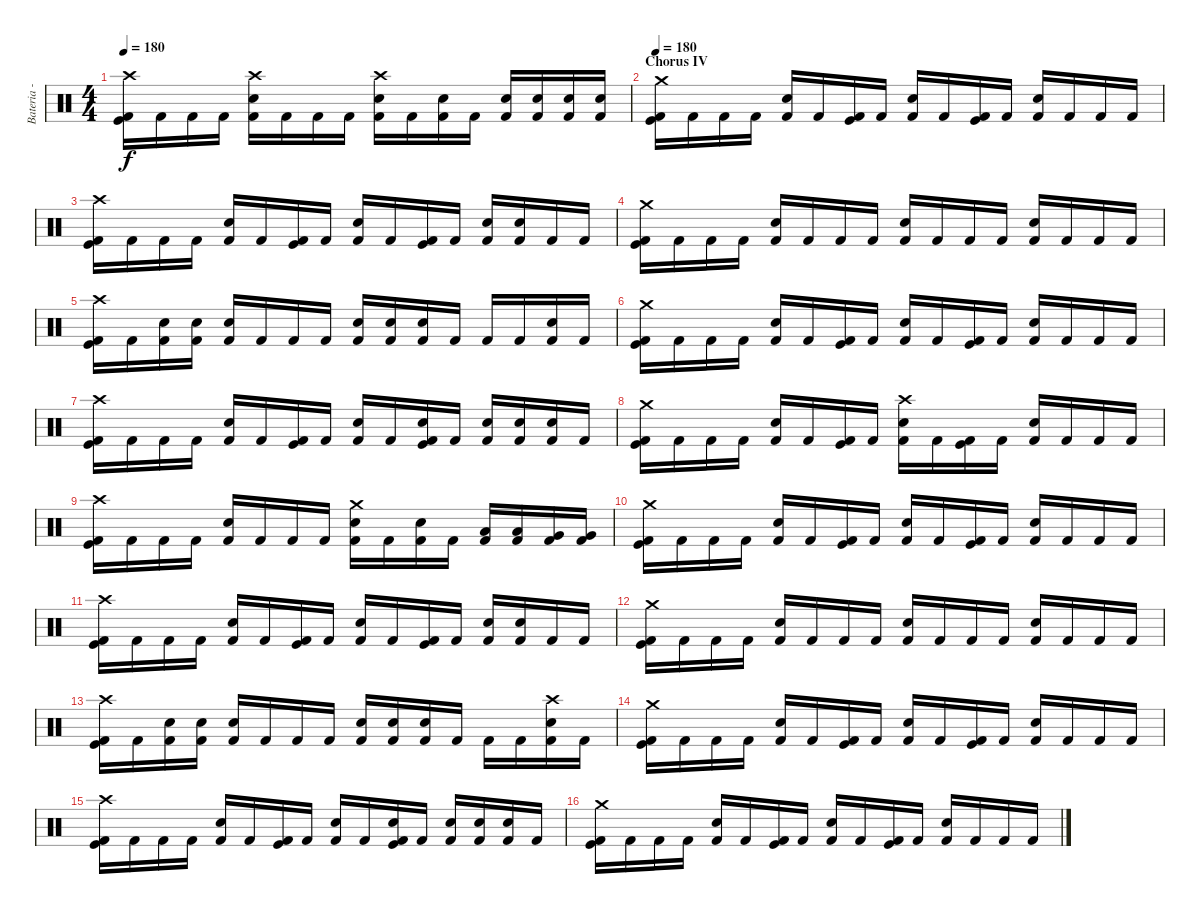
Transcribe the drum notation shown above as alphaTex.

\track ("Bateria - Drums" "Bateria - ") {instrument percussion}
\staff {score}
\articulation defaults
\ts (4 4)
\tempo 180
\clef neutral
\ks c
("Crash high (hit)" "Kick (hit)" "Kick (hit) 2").16{dy f} "Kick (hit) 2".16 "Kick (hit) 2".16 "Kick (hit) 2".16 ("Crash high (hit)" "Snare (hit) 2" "Kick (hit) 2").16 "Kick (hit) 2".16 "Kick (hit) 2".16 "Kick (hit) 2".16 ("Crash high (hit)" "Snare (hit) 2" "Kick (hit) 2").16 "Kick (hit) 2".16 ("Electric Snare (hit)" "Kick (hit) 2").16 "Kick (hit) 2".16 ("Snare (hit) 2" "Kick (hit) 2").16 ("Snare (hit) 2" "Kick (hit) 2").16 ("Snare (hit) 2" "Kick (hit) 2").16 ("Snare (hit) 2" "Kick (hit) 2").16 |
\section ("" "Chorus IV")
\tempo 180
("Crash medium (hit)" "Kick (hit)" "Kick (hit) 2").16 "Kick (hit) 2".16 "Kick (hit) 2".16 "Kick (hit) 2".16 ("Snare (hit) 2" "Kick (hit) 2").16 "Kick (hit) 2".16 ("Kick (hit)" "Kick (hit) 2").16 "Kick (hit) 2".16 ("Snare (hit) 2" "Kick (hit) 2").16 "Kick (hit) 2".16 ("Kick (hit)" "Kick (hit) 2").16 "Kick (hit) 2".16 ("Snare (hit) 2" "Kick (hit) 2").16 "Kick (hit) 2".16 "Kick (hit) 2".16 "Kick (hit) 2".16 |
("Crash high (hit)" "Kick (hit)" "Kick (hit) 2").16 "Kick (hit) 2".16 "Kick (hit) 2".16 "Kick (hit) 2".16 ("Snare (hit) 2" "Kick (hit) 2").16 "Kick (hit) 2".16 ("Kick (hit)" "Kick (hit) 2").16 "Kick (hit) 2".16 ("Snare (hit) 2" "Kick (hit) 2").16 "Kick (hit) 2".16 ("Kick (hit)" "Kick (hit) 2").16 "Kick (hit) 2".16 ("Snare (hit) 2" "Kick (hit) 2").16 ("Snare (hit) 2" "Kick (hit) 2").16 "Kick (hit) 2".16 "Kick (hit) 2".16 |
("Crash medium (hit)" "Kick (hit)" "Kick (hit) 2").16 "Kick (hit) 2".16 "Kick (hit) 2".16 "Kick (hit) 2".16 ("Snare (hit) 2" "Kick (hit) 2").16 "Kick (hit) 2".16 "Kick (hit) 2".16 "Kick (hit) 2".16 ("Snare (hit) 2" "Kick (hit) 2").16 "Kick (hit) 2".16 "Kick (hit) 2".16 "Kick (hit) 2".16 ("Snare (hit) 2" "Kick (hit) 2").16 "Kick (hit) 2".16 "Kick (hit) 2".16 "Kick (hit) 2".16 |
("Crash high (hit)" "Kick (hit)" "Kick (hit) 2").16 "Kick (hit) 2".16 ("Electric Snare (hit)" "Kick (hit) 2").16 ("Electric Snare (hit)" "Kick (hit) 2").16 ("Snare (hit) 2" "Kick (hit) 2").16 "Kick (hit) 2".16 "Kick (hit) 2".16 "Kick (hit) 2".16 ("Electric Snare (hit)" "Kick (hit) 2").16 ("Electric Snare (hit)" "Kick (hit) 2").16 ("Electric Snare (hit)" "Kick (hit) 2").16 "Kick (hit) 2".16 "Kick (hit) 2".16 "Kick (hit) 2".16 ("Snare (hit) 2" "Kick (hit) 2").16 "Kick (hit) 2".16 |
("Crash medium (hit)" "Kick (hit)" "Kick (hit) 2").16 "Kick (hit) 2".16 "Kick (hit) 2".16 "Kick (hit) 2".16 ("Snare (hit) 2" "Kick (hit) 2").16 "Kick (hit) 2".16 ("Kick (hit)" "Kick (hit) 2").16 "Kick (hit) 2".16 ("Snare (hit) 2" "Kick (hit) 2").16 "Kick (hit) 2".16 ("Kick (hit)" "Kick (hit) 2").16 "Kick (hit) 2".16 ("Snare (hit) 2" "Kick (hit) 2").16 "Kick (hit) 2".16 "Kick (hit) 2".16 "Kick (hit) 2".16 |
("Crash high (hit)" "Kick (hit)" "Kick (hit) 2").16 "Kick (hit) 2".16 "Kick (hit) 2".16 "Kick (hit) 2".16 ("Snare (hit) 2" "Kick (hit) 2").16 "Kick (hit) 2".16 ("Kick (hit)" "Kick (hit) 2").16 "Kick (hit) 2".16 ("Snare (hit) 2" "Kick (hit) 2").16 "Kick (hit) 2".16 ("Snare (hit) 2" "Kick (hit)" "Kick (hit) 2").16 "Kick (hit) 2".16 ("Snare (hit) 2" "Kick (hit) 2").16 ("Snare (hit) 2" "Kick (hit) 2").16 ("Snare (hit) 2" "Kick (hit) 2").16 "Kick (hit) 2".16 |
("Crash medium (hit)" "Kick (hit)" "Kick (hit) 2").16 "Kick (hit) 2".16 "Kick (hit) 2".16 "Kick (hit) 2".16 ("Snare (hit) 2" "Kick (hit) 2").16 "Kick (hit) 2".16 ("Kick (hit)" "Kick (hit) 2").16 "Kick (hit) 2".16 ("Crash high (hit)" "Snare (hit) 2" "Kick (hit) 2").16 "Kick (hit) 2".16 ("Kick (hit)" "Kick (hit) 2").16 "Kick (hit) 2".16 ("Snare (hit) 2" "Kick (hit) 2").16 "Kick (hit) 2".16 "Kick (hit) 2".16 "Kick (hit) 2".16 |
("Crash high (hit)" "Kick (hit)" "Kick (hit) 2").16 "Kick (hit) 2".16 "Kick (hit) 2".16 "Kick (hit) 2".16 ("Snare (hit) 2" "Kick (hit) 2").16 "Kick (hit) 2".16 "Kick (hit) 2".16 "Kick (hit) 2".16 ("Crash medium (hit)" "Snare (hit) 2" "Kick (hit) 2").16 "Kick (hit) 2".16 ("Electric Snare (hit)" "Kick (hit) 2").16 "Kick (hit) 2".16 ("Low Tom (hit)" "Kick (hit) 2").16 ("Low Tom (hit)" "Kick (hit) 2").16 ("Very Low Tom (hit)" "Kick (hit) 2").16 ("Very Low Tom (hit)" "Kick (hit) 2").16 |
("Crash medium (hit)" "Kick (hit)" "Kick (hit) 2").16 "Kick (hit) 2".16 "Kick (hit) 2".16 "Kick (hit) 2".16 ("Snare (hit) 2" "Kick (hit) 2").16 "Kick (hit) 2".16 ("Kick (hit)" "Kick (hit) 2").16 "Kick (hit) 2".16 ("Snare (hit) 2" "Kick (hit) 2").16 "Kick (hit) 2".16 ("Kick (hit)" "Kick (hit) 2").16 "Kick (hit) 2".16 ("Snare (hit) 2" "Kick (hit) 2").16 "Kick (hit) 2".16 "Kick (hit) 2".16 "Kick (hit) 2".16 |
("Crash high (hit)" "Kick (hit)" "Kick (hit) 2").16 "Kick (hit) 2".16 "Kick (hit) 2".16 "Kick (hit) 2".16 ("Snare (hit) 2" "Kick (hit) 2").16 "Kick (hit) 2".16 ("Kick (hit)" "Kick (hit) 2").16 "Kick (hit) 2".16 ("Snare (hit) 2" "Kick (hit) 2").16 "Kick (hit) 2".16 ("Kick (hit)" "Kick (hit) 2").16 "Kick (hit) 2".16 ("Snare (hit) 2" "Kick (hit) 2").16 ("Snare (hit) 2" "Kick (hit) 2").16 "Kick (hit) 2".16 "Kick (hit) 2".16 |
("Crash medium (hit)" "Kick (hit)" "Kick (hit) 2").16 "Kick (hit) 2".16 "Kick (hit) 2".16 "Kick (hit) 2".16 ("Snare (hit) 2" "Kick (hit) 2").16 "Kick (hit) 2".16 "Kick (hit) 2".16 "Kick (hit) 2".16 ("Snare (hit) 2" "Kick (hit) 2").16 "Kick (hit) 2".16 "Kick (hit) 2".16 "Kick (hit) 2".16 ("Snare (hit) 2" "Kick (hit) 2").16 "Kick (hit) 2".16 "Kick (hit) 2".16 "Kick (hit) 2".16 |
("Crash high (hit)" "Kick (hit)" "Kick (hit) 2").16 "Kick (hit) 2".16 ("Electric Snare (hit)" "Kick (hit) 2").16 ("Electric Snare (hit)" "Kick (hit) 2").16 ("Snare (hit) 2" "Kick (hit) 2").16 "Kick (hit) 2".16 "Kick (hit) 2".16 "Kick (hit) 2".16 ("Electric Snare (hit)" "Kick (hit) 2").16 ("Electric Snare (hit)" "Kick (hit) 2").16 ("Electric Snare (hit)" "Kick (hit) 2").16 "Kick (hit) 2".16 "Kick (hit) 2".16 "Kick (hit) 2".16 ("Crash high (hit)" "Snare (hit) 2" "Kick (hit) 2").16 "Kick (hit) 2".16 |
("Crash medium (hit)" "Kick (hit)" "Kick (hit) 2").16 "Kick (hit) 2".16 "Kick (hit) 2".16 "Kick (hit) 2".16 ("Snare (hit) 2" "Kick (hit) 2").16 "Kick (hit) 2".16 ("Kick (hit)" "Kick (hit) 2").16 "Kick (hit) 2".16 ("Snare (hit) 2" "Kick (hit) 2").16 "Kick (hit) 2".16 ("Kick (hit)" "Kick (hit) 2").16 "Kick (hit) 2".16 ("Snare (hit) 2" "Kick (hit) 2").16 "Kick (hit) 2".16 "Kick (hit) 2".16 "Kick (hit) 2".16 |
("Crash high (hit)" "Kick (hit)" "Kick (hit) 2").16 "Kick (hit) 2".16 "Kick (hit) 2".16 "Kick (hit) 2".16 ("Snare (hit) 2" "Kick (hit) 2").16 "Kick (hit) 2".16 ("Kick (hit)" "Kick (hit) 2").16 "Kick (hit) 2".16 ("Snare (hit) 2" "Kick (hit) 2").16 "Kick (hit) 2".16 ("Snare (hit) 2" "Kick (hit)" "Kick (hit) 2").16 "Kick (hit) 2".16 ("Snare (hit) 2" "Kick (hit) 2").16 ("Snare (hit) 2" "Kick (hit) 2").16 ("Snare (hit) 2" "Kick (hit) 2").16 "Kick (hit) 2".16 |
("Crash medium (hit)" "Kick (hit)" "Kick (hit) 2").16 "Kick (hit) 2".16 "Kick (hit) 2".16 "Kick (hit) 2".16 ("Snare (hit) 2" "Kick (hit) 2").16 "Kick (hit) 2".16 ("Kick (hit)" "Kick (hit) 2").16 "Kick (hit) 2".16 ("Snare (hit) 2" "Kick (hit) 2").16 "Kick (hit) 2".16 ("Kick (hit)" "Kick (hit) 2").16 "Kick (hit) 2".16 ("Snare (hit) 2" "Kick (hit) 2").16 "Kick (hit) 2".16 "Kick (hit) 2".16 "Kick (hit) 2".16
